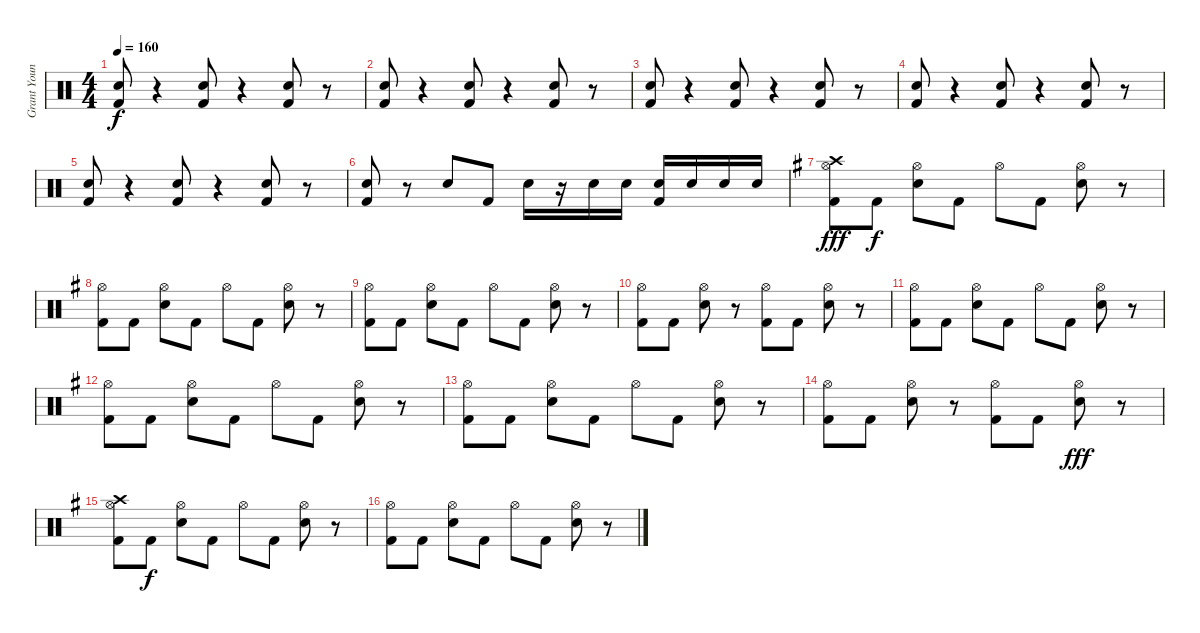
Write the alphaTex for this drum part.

\track ("Grant Young" "Grant Youn") {instrument percussion}
\staff {score}
\articulation defaults
\ts (4 4)
\tempo 160
\clef neutral
\ks c
("Kick (hit) 2" "Snare (hit) 2").8{dy f} r.4 ("Kick (hit) 2" "Snare (hit) 2").8 r.4 ("Kick (hit) 2" "Snare (hit) 2").8 r.8 |
("Kick (hit) 2" "Snare (hit) 2").8 r.4 ("Kick (hit) 2" "Snare (hit) 2").8 r.4 ("Kick (hit) 2" "Snare (hit) 2").8 r.8 |
("Kick (hit) 2" "Snare (hit) 2").8 r.4 ("Kick (hit) 2" "Snare (hit) 2").8 r.4 ("Kick (hit) 2" "Snare (hit) 2").8 r.8 |
("Kick (hit) 2" "Snare (hit) 2").8 r.4 ("Kick (hit) 2" "Snare (hit) 2").8 r.4 ("Kick (hit) 2" "Snare (hit) 2").8 r.8 |
("Kick (hit) 2" "Snare (hit) 2").8 r.4 ("Kick (hit) 2" "Snare (hit) 2").8 r.4 ("Kick (hit) 2" "Snare (hit) 2").8 r.8 |
("Kick (hit) 2" "Snare (hit) 2").8 r.8 "Snare (hit) 2".8 "Kick (hit) 2".8 "Snare (hit) 2".16 r.16 "Snare (hit) 2".16 "Snare (hit) 2".16 ("Snare (hit) 2" "Kick (hit) 2").16 "Snare (hit) 2".16 "Snare (hit) 2".16 "Snare (hit) 2".16 |
\ks g
("Crash high (hit)" "Hi-Hat (open)" "Kick (hit) 2").8{dy fff} "Kick (hit) 2".8{dy f} ("Hi-Hat (open)" "Snare (hit) 2").8 "Kick (hit) 2".8 "Hi-Hat (open)".8 "Kick (hit) 2".8 ("Hi-Hat (open)" "Snare (hit) 2").8 r.8 |
("Hi-Hat (open)" "Kick (hit) 2").8 "Kick (hit) 2".8 ("Hi-Hat (open)" "Snare (hit) 2").8 "Kick (hit) 2".8 "Hi-Hat (open)".8 "Kick (hit) 2".8 ("Hi-Hat (open)" "Snare (hit) 2").8 r.8 |
("Hi-Hat (open)" "Kick (hit) 2").8 "Kick (hit) 2".8 ("Hi-Hat (open)" "Snare (hit) 2").8 "Kick (hit) 2".8 "Hi-Hat (open)".8 "Kick (hit) 2".8 ("Hi-Hat (open)" "Snare (hit) 2").8 r.8 |
("Hi-Hat (open)" "Kick (hit) 2").8 "Kick (hit) 2".8 ("Hi-Hat (open)" "Snare (hit) 2").8 r.8 ("Kick (hit) 2" "Hi-Hat (open)").8 "Kick (hit) 2".8 ("Hi-Hat (open)" "Snare (hit) 2").8 r.8 |
("Hi-Hat (open)" "Kick (hit) 2").8 "Kick (hit) 2".8 ("Hi-Hat (open)" "Snare (hit) 2").8 "Kick (hit) 2".8 "Hi-Hat (open)".8 "Kick (hit) 2".8 ("Hi-Hat (open)" "Snare (hit) 2").8 r.8 |
("Hi-Hat (open)" "Kick (hit) 2").8 "Kick (hit) 2".8 ("Hi-Hat (open)" "Snare (hit) 2").8 "Kick (hit) 2".8 "Hi-Hat (open)".8 "Kick (hit) 2".8 ("Hi-Hat (open)" "Snare (hit) 2").8 r.8 |
("Kick (hit) 2" "Hi-Hat (open)").8 "Kick (hit) 2".8 ("Hi-Hat (open)" "Snare (hit) 2").8 "Kick (hit) 2".8 "Hi-Hat (open)".8 "Kick (hit) 2".8 ("Hi-Hat (open)" "Snare (hit) 2").8 r.8 |
("Hi-Hat (open)" "Kick (hit) 2").8 "Kick (hit) 2".8 ("Hi-Hat (open)" "Snare (hit) 2").8 r.8 ("Kick (hit) 2" "Hi-Hat (open)").8 "Kick (hit) 2".8 ("Snare (hit) 2" "Hi-Hat (open)").8{dy fff} r.8 |
("Crash high (hit)" "Hi-Hat (open)" "Kick (hit) 2").8 "Kick (hit) 2".8{dy f} ("Hi-Hat (open)" "Snare (hit) 2").8 "Kick (hit) 2".8 "Hi-Hat (open)".8 "Kick (hit) 2".8 ("Hi-Hat (open)" "Snare (hit) 2").8 r.8 |
("Hi-Hat (open)" "Kick (hit) 2").8 "Kick (hit) 2".8 ("Hi-Hat (open)" "Snare (hit) 2").8 "Kick (hit) 2".8 "Hi-Hat (open)".8 "Kick (hit) 2".8 ("Hi-Hat (open)" "Snare (hit) 2").8 r.8
